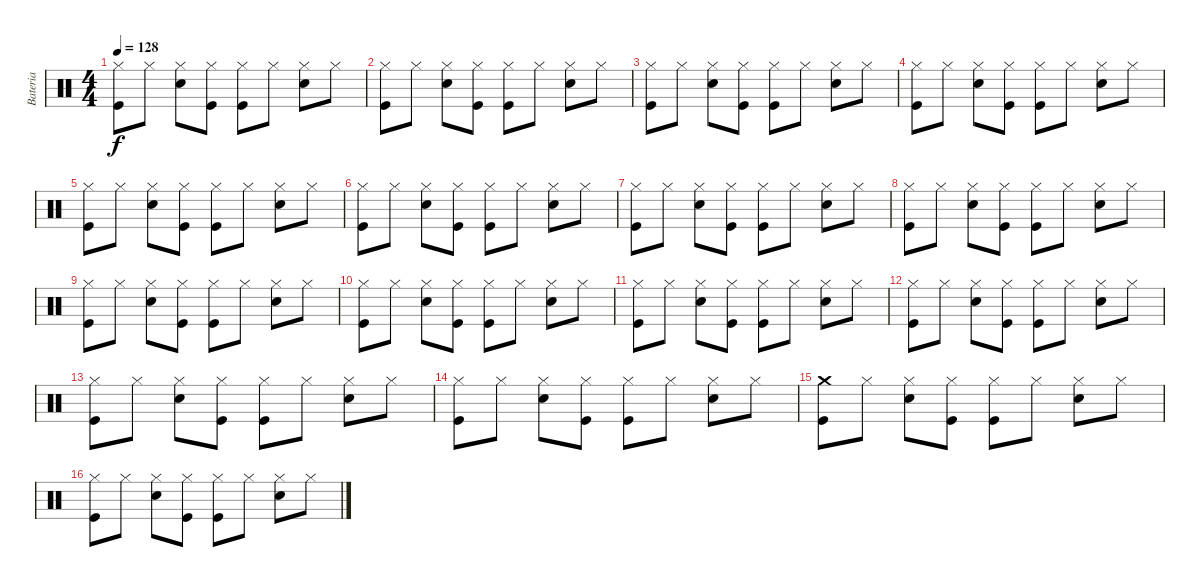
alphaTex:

\track ("Bateria" "Bateria") {instrument percussion}
\staff {score}
\articulation defaults
\ts (4 4)
\tempo 128
\clef neutral
\ks c
("Hi-Hat (closed)" "Kick (hit)").8{dy f} "Hi-Hat (closed)".8 ("Hi-Hat (closed)" "Snare (hit) 2").8 ("Hi-Hat (closed)" "Kick (hit)").8 ("Hi-Hat (closed)" "Kick (hit)").8 "Hi-Hat (closed)".8 ("Hi-Hat (closed)" "Snare (hit) 2").8 "Hi-Hat (closed)".8 |
("Hi-Hat (closed)" "Kick (hit)").8 "Hi-Hat (closed)".8 ("Hi-Hat (closed)" "Snare (hit) 2").8 ("Hi-Hat (closed)" "Kick (hit)").8 ("Hi-Hat (closed)" "Kick (hit)").8 "Hi-Hat (closed)".8 ("Hi-Hat (closed)" "Snare (hit) 2").8 "Hi-Hat (closed)".8 |
("Hi-Hat (closed)" "Kick (hit)").8 "Hi-Hat (closed)".8 ("Hi-Hat (closed)" "Snare (hit) 2").8 ("Hi-Hat (closed)" "Kick (hit)").8 ("Hi-Hat (closed)" "Kick (hit)").8 "Hi-Hat (closed)".8 ("Hi-Hat (closed)" "Snare (hit) 2").8 "Hi-Hat (closed)".8 |
("Hi-Hat (closed)" "Kick (hit)").8 "Hi-Hat (closed)".8 ("Hi-Hat (closed)" "Snare (hit) 2").8 ("Hi-Hat (closed)" "Kick (hit)").8 ("Hi-Hat (closed)" "Kick (hit)").8 "Hi-Hat (closed)".8 ("Hi-Hat (closed)" "Snare (hit) 2").8 "Hi-Hat (closed)".8 |
("Hi-Hat (closed)" "Kick (hit)").8 "Hi-Hat (closed)".8 ("Hi-Hat (closed)" "Snare (hit) 2").8 ("Hi-Hat (closed)" "Kick (hit)").8 ("Hi-Hat (closed)" "Kick (hit)").8 "Hi-Hat (closed)".8 ("Hi-Hat (closed)" "Snare (hit) 2").8 "Hi-Hat (closed)".8 |
("Hi-Hat (closed)" "Kick (hit)").8 "Hi-Hat (closed)".8 ("Hi-Hat (closed)" "Snare (hit) 2").8 ("Hi-Hat (closed)" "Kick (hit)").8 ("Hi-Hat (closed)" "Kick (hit)").8 "Hi-Hat (closed)".8 ("Hi-Hat (closed)" "Snare (hit) 2").8 "Hi-Hat (closed)".8 |
("Hi-Hat (closed)" "Kick (hit)").8 "Hi-Hat (closed)".8 ("Hi-Hat (closed)" "Snare (hit) 2").8 ("Hi-Hat (closed)" "Kick (hit)").8 ("Hi-Hat (closed)" "Kick (hit)").8 "Hi-Hat (closed)".8 ("Hi-Hat (closed)" "Snare (hit) 2").8 "Hi-Hat (closed)".8 |
("Hi-Hat (closed)" "Kick (hit)").8 "Hi-Hat (closed)".8 ("Hi-Hat (closed)" "Snare (hit) 2").8 ("Hi-Hat (closed)" "Kick (hit)").8 ("Hi-Hat (closed)" "Kick (hit)").8 "Hi-Hat (closed)".8 ("Hi-Hat (closed)" "Snare (hit) 2").8 "Hi-Hat (closed)".8 |
("Hi-Hat (closed)" "Kick (hit)").8 "Hi-Hat (closed)".8 ("Hi-Hat (closed)" "Snare (hit) 2").8 ("Hi-Hat (closed)" "Kick (hit)").8 ("Hi-Hat (closed)" "Kick (hit)").8 "Hi-Hat (closed)".8 ("Hi-Hat (closed)" "Snare (hit) 2").8 "Hi-Hat (closed)".8 |
("Hi-Hat (closed)" "Kick (hit)").8 "Hi-Hat (closed)".8 ("Hi-Hat (closed)" "Snare (hit) 2").8 ("Hi-Hat (closed)" "Kick (hit)").8 ("Hi-Hat (closed)" "Kick (hit)").8 "Hi-Hat (closed)".8 ("Hi-Hat (closed)" "Snare (hit) 2").8 "Hi-Hat (closed)".8 |
("Hi-Hat (closed)" "Kick (hit)").8 "Hi-Hat (closed)".8 ("Hi-Hat (closed)" "Snare (hit) 2").8 ("Hi-Hat (closed)" "Kick (hit)").8 ("Hi-Hat (closed)" "Kick (hit)").8 "Hi-Hat (closed)".8 ("Hi-Hat (closed)" "Snare (hit) 2").8 "Hi-Hat (closed)".8 |
("Hi-Hat (closed)" "Kick (hit)").8 "Hi-Hat (closed)".8 ("Hi-Hat (closed)" "Snare (hit) 2").8 ("Hi-Hat (closed)" "Kick (hit)").8 ("Hi-Hat (closed)" "Kick (hit)").8 "Hi-Hat (closed)".8 ("Hi-Hat (closed)" "Snare (hit) 2").8 "Hi-Hat (closed)".8 |
("Hi-Hat (closed)" "Kick (hit)").8 "Hi-Hat (closed)".8 ("Hi-Hat (closed)" "Snare (hit) 2").8 ("Hi-Hat (closed)" "Kick (hit)").8 ("Hi-Hat (closed)" "Kick (hit)").8 "Hi-Hat (closed)".8 ("Hi-Hat (closed)" "Snare (hit) 2").8 "Hi-Hat (closed)".8 |
("Hi-Hat (closed)" "Kick (hit)").8 "Hi-Hat (closed)".8 ("Hi-Hat (closed)" "Snare (hit) 2").8 ("Hi-Hat (closed)" "Kick (hit)").8 ("Hi-Hat (closed)" "Kick (hit)").8 "Hi-Hat (closed)".8 ("Hi-Hat (closed)" "Snare (hit) 2").8 "Hi-Hat (closed)".8 |
("Crash medium (hit)" "Kick (hit)").8 "Hi-Hat (closed)".8 ("Hi-Hat (closed)" "Snare (hit) 2").8 ("Hi-Hat (closed)" "Kick (hit)").8 ("Hi-Hat (closed)" "Kick (hit)").8 "Hi-Hat (closed)".8 ("Hi-Hat (closed)" "Snare (hit) 2").8 "Hi-Hat (closed)".8 |
("Hi-Hat (closed)" "Kick (hit)").8 "Hi-Hat (closed)".8 ("Hi-Hat (closed)" "Snare (hit) 2").8 ("Hi-Hat (closed)" "Kick (hit)").8 ("Hi-Hat (closed)" "Kick (hit)").8 "Hi-Hat (closed)".8 ("Hi-Hat (closed)" "Snare (hit) 2").8 "Hi-Hat (closed)".8
